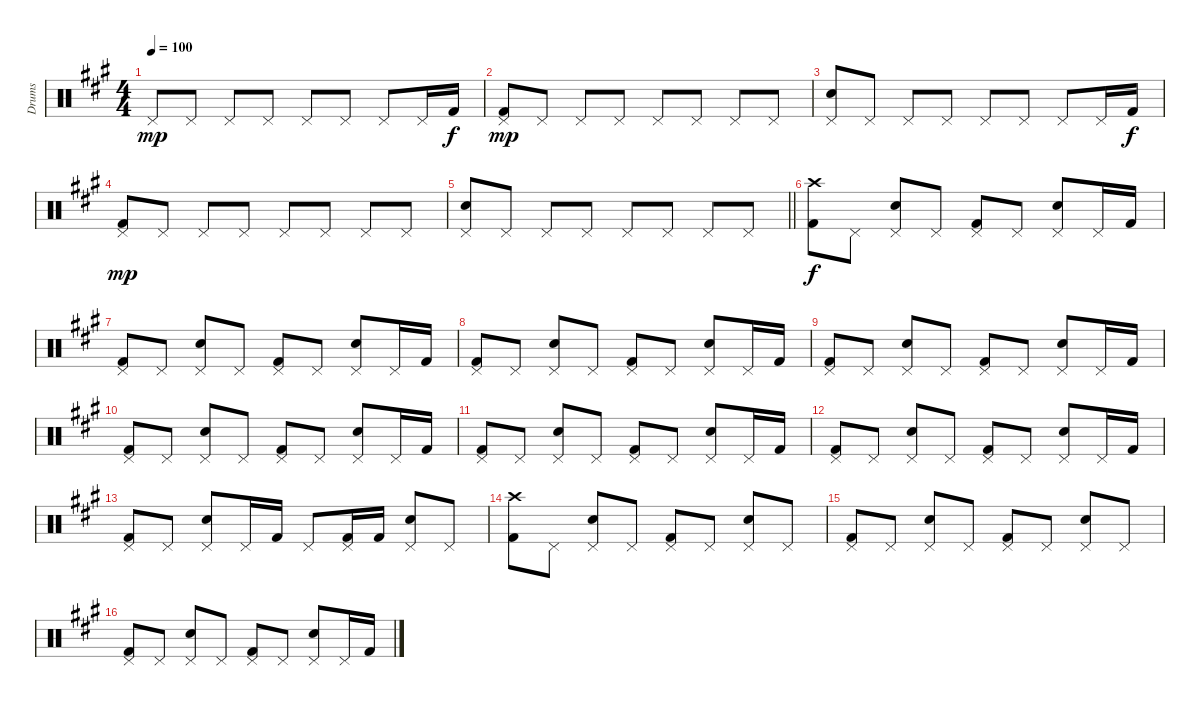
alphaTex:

\track ("Drums" "Drums") {instrument percussion}
\staff {score}
\articulation defaults
\ts (4 4)
\tempo 100
\clef neutral
\ks f#minor "Pedal Hi-Hat (hit)".8{dy mp} "Pedal Hi-Hat (hit)".8 "Pedal Hi-Hat (hit)".8 "Pedal Hi-Hat (hit)".8 "Pedal Hi-Hat (hit)".8 "Pedal Hi-Hat (hit)".8 "Pedal Hi-Hat (hit)".8 "Pedal Hi-Hat (hit)".16 "Kick (hit) 2".16{dy f}
|
("Pedal Hi-Hat (hit)" "Kick (hit) 2").8{dy mp} "Pedal Hi-Hat (hit)".8 "Pedal Hi-Hat (hit)".8 "Pedal Hi-Hat (hit)".8 "Pedal Hi-Hat (hit)".8 "Pedal Hi-Hat (hit)".8 "Pedal Hi-Hat (hit)".8 "Pedal Hi-Hat (hit)".8 |
("Snare (hit) 2" "Pedal Hi-Hat (hit)").8 "Pedal Hi-Hat (hit)".8 "Pedal Hi-Hat (hit)".8 "Pedal Hi-Hat (hit)".8 "Pedal Hi-Hat (hit)".8 "Pedal Hi-Hat (hit)".8 "Pedal Hi-Hat (hit)".8 "Pedal Hi-Hat (hit)".16 "Kick (hit) 2".16{dy f} |
("Pedal Hi-Hat (hit)" "Kick (hit) 2").8{dy mp} "Pedal Hi-Hat (hit)".8 "Pedal Hi-Hat (hit)".8 "Pedal Hi-Hat (hit)".8 "Pedal Hi-Hat (hit)".8 "Pedal Hi-Hat (hit)".8 "Pedal Hi-Hat (hit)".8 "Pedal Hi-Hat (hit)".8 |
\barLineRight lightlight
("Snare (hit) 2" "Pedal Hi-Hat (hit)").8 "Pedal Hi-Hat (hit)".8 "Pedal Hi-Hat (hit)".8 "Pedal Hi-Hat (hit)".8 "Pedal Hi-Hat (hit)".8 "Pedal Hi-Hat (hit)".8 "Pedal Hi-Hat (hit)".8 "Pedal Hi-Hat (hit)".8 |
("Crash high (hit)" "Kick (hit) 2").8{dy f} "Pedal Hi-Hat (hit)".8 ("Pedal Hi-Hat (hit)" "Snare (hit) 2").8 "Pedal Hi-Hat (hit)".8 ("Pedal Hi-Hat (hit)" "Kick (hit) 2").8 "Pedal Hi-Hat (hit)".8 ("Pedal Hi-Hat (hit)" "Snare (hit) 2").8 "Pedal Hi-Hat (hit)".16 "Kick (hit) 2".16 |
("Pedal Hi-Hat (hit)" "Kick (hit) 2").8 "Pedal Hi-Hat (hit)".8 ("Pedal Hi-Hat (hit)" "Snare (hit) 2").8 "Pedal Hi-Hat (hit)".8 ("Pedal Hi-Hat (hit)" "Kick (hit) 2").8 "Pedal Hi-Hat (hit)".8 ("Pedal Hi-Hat (hit)" "Snare (hit) 2").8 "Pedal Hi-Hat (hit)".16 "Kick (hit) 2".16 |
("Pedal Hi-Hat (hit)" "Kick (hit) 2").8 "Pedal Hi-Hat (hit)".8 ("Pedal Hi-Hat (hit)" "Snare (hit) 2").8 "Pedal Hi-Hat (hit)".8 ("Pedal Hi-Hat (hit)" "Kick (hit) 2").8 "Pedal Hi-Hat (hit)".8 ("Pedal Hi-Hat (hit)" "Snare (hit) 2").8 "Pedal Hi-Hat (hit)".16 "Kick (hit) 2".16 |
("Pedal Hi-Hat (hit)" "Kick (hit) 2").8 "Pedal Hi-Hat (hit)".8 ("Pedal Hi-Hat (hit)" "Snare (hit) 2").8 "Pedal Hi-Hat (hit)".8 ("Pedal Hi-Hat (hit)" "Kick (hit) 2").8 "Pedal Hi-Hat (hit)".8 ("Pedal Hi-Hat (hit)" "Snare (hit) 2").8 "Pedal Hi-Hat (hit)".16 "Kick (hit) 2".16 |
("Pedal Hi-Hat (hit)" "Kick (hit) 2").8 "Pedal Hi-Hat (hit)".8 ("Pedal Hi-Hat (hit)" "Snare (hit) 2").8 "Pedal Hi-Hat (hit)".8 ("Pedal Hi-Hat (hit)" "Kick (hit) 2").8 "Pedal Hi-Hat (hit)".8 ("Pedal Hi-Hat (hit)" "Snare (hit) 2").8 "Pedal Hi-Hat (hit)".16 "Kick (hit) 2".16 |
("Pedal Hi-Hat (hit)" "Kick (hit) 2").8 "Pedal Hi-Hat (hit)".8 ("Pedal Hi-Hat (hit)" "Snare (hit) 2").8 "Pedal Hi-Hat (hit)".8 ("Pedal Hi-Hat (hit)" "Kick (hit) 2").8 "Pedal Hi-Hat (hit)".8 ("Pedal Hi-Hat (hit)" "Snare (hit) 2").8 "Pedal Hi-Hat (hit)".16 "Kick (hit) 2".16 |
("Pedal Hi-Hat (hit)" "Kick (hit) 2").8 "Pedal Hi-Hat (hit)".8 ("Pedal Hi-Hat (hit)" "Snare (hit) 2").8 "Pedal Hi-Hat (hit)".8 ("Pedal Hi-Hat (hit)" "Kick (hit) 2").8 "Pedal Hi-Hat (hit)".8 ("Pedal Hi-Hat (hit)" "Snare (hit) 2").8 "Pedal Hi-Hat (hit)".16 "Kick (hit) 2".16 |
("Pedal Hi-Hat (hit)" "Kick (hit) 2").8 "Pedal Hi-Hat (hit)".8 ("Pedal Hi-Hat (hit)" "Snare (hit) 2").8 "Pedal Hi-Hat (hit)".16 "Kick (hit) 2".16 "Pedal Hi-Hat (hit)".8 ("Pedal Hi-Hat (hit)" "Kick (hit) 2").16 "Kick (hit) 2".16 ("Pedal Hi-Hat (hit)" "Snare (hit) 2").8 "Pedal Hi-Hat (hit)".8 |
("Crash high (hit)" "Kick (hit) 2").8 "Pedal Hi-Hat (hit)".8 ("Pedal Hi-Hat (hit)" "Snare (hit) 2").8 "Pedal Hi-Hat (hit)".8 ("Pedal Hi-Hat (hit)" "Kick (hit) 2").8 "Pedal Hi-Hat (hit)".8 ("Pedal Hi-Hat (hit)" "Snare (hit) 2").8 "Pedal Hi-Hat (hit)".8 |
("Pedal Hi-Hat (hit)" "Kick (hit) 2").8 "Pedal Hi-Hat (hit)".8 ("Pedal Hi-Hat (hit)" "Snare (hit) 2").8 "Pedal Hi-Hat (hit)".8 ("Pedal Hi-Hat (hit)" "Kick (hit) 2").8 "Pedal Hi-Hat (hit)".8 ("Pedal Hi-Hat (hit)" "Snare (hit) 2").8 "Pedal Hi-Hat (hit)".8 |
("Pedal Hi-Hat (hit)" "Kick (hit) 2").8 "Pedal Hi-Hat (hit)".8 ("Pedal Hi-Hat (hit)" "Snare (hit) 2").8 "Pedal Hi-Hat (hit)".8 ("Pedal Hi-Hat (hit)" "Kick (hit) 2").8 "Pedal Hi-Hat (hit)".8 ("Pedal Hi-Hat (hit)" "Snare (hit) 2").8 "Pedal Hi-Hat (hit)".16 "Kick (hit) 2".16
